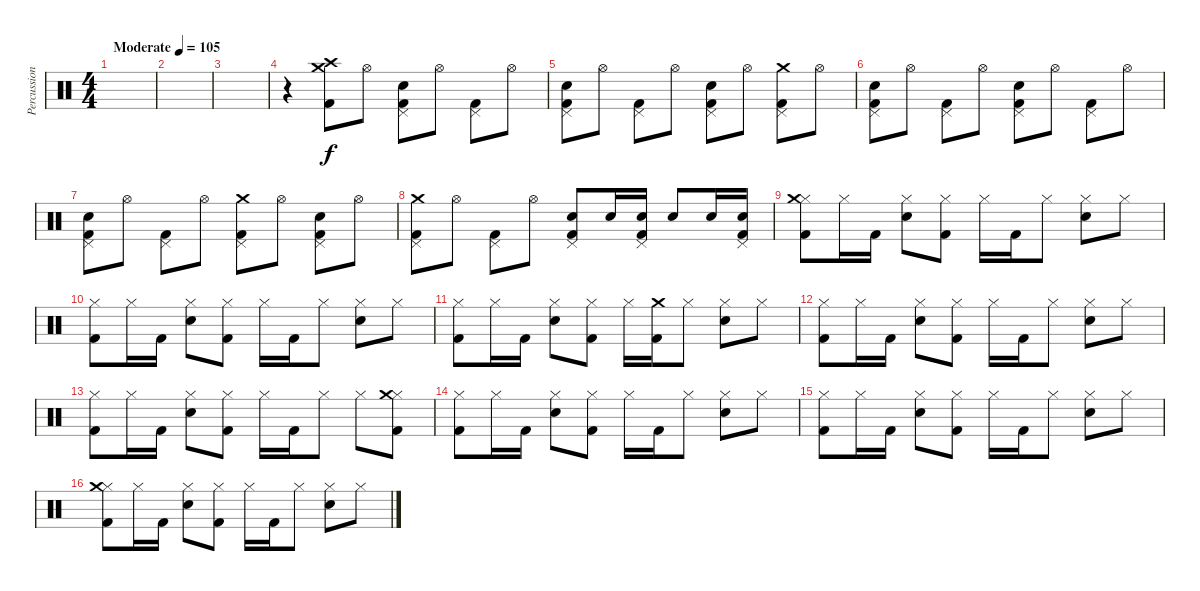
\track ("Percussion" "Percussion") {instrument percussion}
\staff {score}
\articulation defaults
\ts (4 4)
\tempo (105 "Moderate")
\clef neutral
\ks c
|
|
|
r.4 ("Crash high (hit)" "Crash medium (hit)" "Kick (hit) 2").8 "Hi-Hat (open)".8 ("Pedal Hi-Hat (hit)" "Snare (hit) 2" "Kick (hit) 2").8 "Hi-Hat (open)".8 ("Pedal Hi-Hat (hit)" "Kick (hit) 2").8 "Hi-Hat (open)".8 |
("Pedal Hi-Hat (hit)" "Snare (hit) 2" "Kick (hit) 2").8 "Hi-Hat (open)".8 ("Pedal Hi-Hat (hit)" "Kick (hit) 2").8 "Hi-Hat (open)".8 ("Pedal Hi-Hat (hit)" "Snare (hit) 2" "Kick (hit) 2").8 "Hi-Hat (open)".8 ("Pedal Hi-Hat (hit)" "Crash medium (hit)" "Kick (hit) 2").8 "Hi-Hat (open)".8 |
("Pedal Hi-Hat (hit)" "Snare (hit) 2" "Kick (hit) 2").8 "Hi-Hat (open)".8 ("Pedal Hi-Hat (hit)" "Kick (hit) 2").8 "Hi-Hat (open)".8 ("Pedal Hi-Hat (hit)" "Snare (hit) 2" "Kick (hit) 2").8 "Hi-Hat (open)".8 ("Pedal Hi-Hat (hit)" "Kick (hit) 2").8 "Hi-Hat (open)".8 |
("Pedal Hi-Hat (hit)" "Snare (hit) 2" "Kick (hit) 2").8 "Hi-Hat (open)".8 ("Pedal Hi-Hat (hit)" "Kick (hit) 2").8 "Hi-Hat (open)".8 ("Pedal Hi-Hat (hit)" "Crash medium (hit)" "Kick (hit) 2").8 "Hi-Hat (open)".8 ("Pedal Hi-Hat (hit)" "Snare (hit) 2" "Kick (hit) 2").8 "Hi-Hat (open)".8 |
("Pedal Hi-Hat (hit)" "Crash medium (hit)" "Kick (hit) 2").8 "Hi-Hat (open)".8 ("Pedal Hi-Hat (hit)" "Kick (hit) 2").8 "Hi-Hat (open)".8 ("Pedal Hi-Hat (hit)" "Snare (hit) 2" "Kick (hit) 2").8 "Snare (hit) 2".16 ("Pedal Hi-Hat (hit)" "Snare (hit) 2" "Kick (hit) 2").16 "Snare (hit) 2".8 "Snare (hit) 2".16 ("Pedal Hi-Hat (hit)" "Snare (hit) 2" "Kick (hit) 2").16 |
("Hi-Hat (closed)" "Crash medium (hit)" "Kick (hit) 2").8 "Hi-Hat (closed)".16 "Kick (hit) 2".16 ("Hi-Hat (closed)" "Snare (hit) 2").8 ("Hi-Hat (closed)" "Kick (hit) 2").8 "Hi-Hat (closed)".16 "Kick (hit) 2".16 "Hi-Hat (closed)".8 ("Hi-Hat (closed)" "Snare (hit) 2").8 "Hi-Hat (closed)".8 |
("Hi-Hat (closed)" "Kick (hit) 2").8 "Hi-Hat (closed)".16 "Kick (hit) 2".16 ("Hi-Hat (closed)" "Snare (hit) 2").8 ("Hi-Hat (closed)" "Kick (hit) 2").8 "Hi-Hat (closed)".16 "Kick (hit) 2".16 "Hi-Hat (closed)".8 ("Hi-Hat (closed)" "Snare (hit) 2").8 "Hi-Hat (closed)".8 |
("Hi-Hat (closed)" "Kick (hit) 2").8 "Hi-Hat (closed)".16 "Kick (hit) 2".16 ("Hi-Hat (closed)" "Snare (hit) 2").8 ("Hi-Hat (closed)" "Kick (hit) 2").8 "Hi-Hat (closed)".16 ("Crash medium (hit)" "Kick (hit) 2").16 "Hi-Hat (closed)".8 ("Hi-Hat (closed)" "Snare (hit) 2").8 "Hi-Hat (closed)".8 |
("Hi-Hat (closed)" "Kick (hit) 2").8 "Hi-Hat (closed)".16 "Kick (hit) 2".16 ("Hi-Hat (closed)" "Snare (hit) 2").8 ("Hi-Hat (closed)" "Kick (hit) 2").8 "Hi-Hat (closed)".16 "Kick (hit) 2".16 "Hi-Hat (closed)".8 ("Hi-Hat (closed)" "Snare (hit) 2").8 "Hi-Hat (closed)".8 |
("Hi-Hat (closed)" "Kick (hit) 2").8 "Hi-Hat (closed)".16 "Kick (hit) 2".16 ("Hi-Hat (closed)" "Snare (hit) 2").8 ("Hi-Hat (closed)" "Kick (hit) 2").8 "Hi-Hat (closed)".16 "Kick (hit) 2".16 "Hi-Hat (closed)".8 "Hi-Hat (closed)".8 ("Hi-Hat (closed)" "Crash medium (hit)" "Kick (hit) 2").8 |
("Hi-Hat (closed)" "Kick (hit) 2").8 "Hi-Hat (closed)".16 "Kick (hit) 2".16 ("Hi-Hat (closed)" "Snare (hit) 2").8 ("Hi-Hat (closed)" "Kick (hit) 2").8 "Hi-Hat (closed)".16 "Kick (hit) 2".16 "Hi-Hat (closed)".8 ("Hi-Hat (closed)" "Snare (hit) 2").8 "Hi-Hat (closed)".8 |
("Hi-Hat (closed)" "Kick (hit) 2").8 "Hi-Hat (closed)".16 "Kick (hit) 2".16 ("Hi-Hat (closed)" "Snare (hit) 2").8 ("Hi-Hat (closed)" "Kick (hit) 2").8 "Hi-Hat (closed)".16 "Kick (hit) 2".16 "Hi-Hat (closed)".8 ("Hi-Hat (closed)" "Snare (hit) 2").8 "Hi-Hat (closed)".8 |
("Hi-Hat (closed)" "Crash medium (hit)" "Kick (hit) 2").8 "Hi-Hat (closed)".16 "Kick (hit) 2".16 ("Hi-Hat (closed)" "Snare (hit) 2").8 ("Hi-Hat (closed)" "Kick (hit) 2").8 "Hi-Hat (closed)".16 "Kick (hit) 2".16 "Hi-Hat (closed)".8 ("Hi-Hat (closed)" "Snare (hit) 2").8 "Hi-Hat (closed)".8
